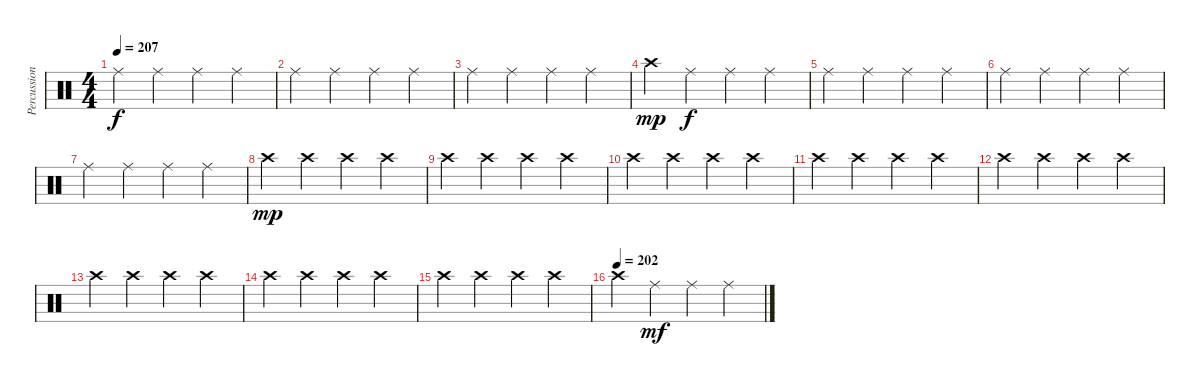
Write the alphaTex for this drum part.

\track ("Percussion2" "Percussion") {instrument percussion}
\staff {score}
\articulation defaults
\ts (4 4)
\tempo 207
\clef neutral
\ks c "Ride (middle)".4{dy f} "Ride (middle)".4 "Ride (middle)".4 "Ride (middle)".4
|
"Ride (middle)".4 "Ride (middle)".4 "Ride (middle)".4 "Ride (middle)".4 |
"Ride (middle)".4 "Ride (middle)".4 "Ride (middle)".4 "Ride (middle)".4 |
"Crash high (hit)".4{dy mp} "Ride (middle)".4{dy f} "Ride (middle)".4 "Ride (middle)".4 |
"Ride (middle)".4 "Ride (middle)".4 "Ride (middle)".4 "Ride (middle)".4 |
"Ride (middle)".4 "Ride (middle)".4 "Ride (middle)".4 "Ride (middle)".4 |
"Ride (middle)".4 "Ride (middle)".4 "Ride (middle)".4 "Ride (middle)".4 |
"Crash high (hit)".4{dy mp} "Crash high (hit)".4 "Crash high (hit)".4 "Crash high (hit)".4 |
"Crash high (hit)".4 "Crash high (hit)".4 "Crash high (hit)".4 "Crash high (hit)".4 |
"Crash high (hit)".4 "Crash high (hit)".4 "Crash high (hit)".4 "Crash high (hit)".4 |
"Crash high (hit)".4 "Crash high (hit)".4 "Crash high (hit)".4 "Crash high (hit)".4 |
"Crash high (hit)".4 "Crash high (hit)".4 "Crash high (hit)".4 "Crash high (hit)".4 |
"Crash high (hit)".4 "Crash high (hit)".4 "Crash high (hit)".4 "Crash high (hit)".4 |
"Crash high (hit)".4 "Crash high (hit)".4 "Crash high (hit)".4 "Crash high (hit)".4 |
"Crash high (hit)".4 "Crash high (hit)".4 "Crash high (hit)".4 "Crash high (hit)".4 |
\tempo (202)
"Crash high (hit)".4 "Ride (middle)".4{dy mf} "Ride (middle)".4 "Ride (middle)".4
